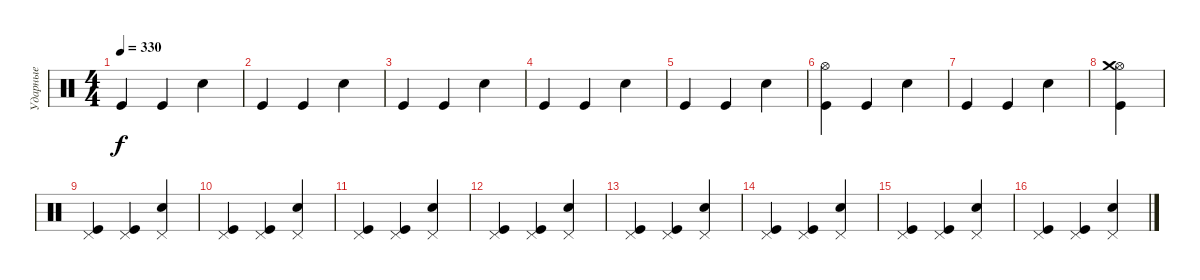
\track ("Ударные" "Ударные") {instrument percussion}
\staff {score}
\articulation defaults
\ts (4 4)
\tempo 330
\clef neutral
\ks c "Kick (hit)".4{dy f} "Kick (hit)".4 "Snare (hit) 2".4
|
"Kick (hit)".4 "Kick (hit)".4 "Snare (hit) 2".4 |
"Kick (hit)".4 "Kick (hit)".4 "Snare (hit) 2".4 |
"Kick (hit)".4 "Kick (hit)".4 "Snare (hit) 2".4 |
"Kick (hit)".4 "Kick (hit)".4 "Snare (hit) 2".4 |
("Kick (hit)" "Hi-Hat (open)").4 "Kick (hit)".4 "Snare (hit) 2".4 |
"Kick (hit)".4 "Kick (hit)".4 "Snare (hit) 2".4 |
("Kick (hit)" "Hi-Hat (open)" "Crash medium (hit)").4 |
("Kick (hit)" "Pedal Hi-Hat (hit)").4 ("Kick (hit)" "Pedal Hi-Hat (hit)").4 ("Snare (hit) 2" "Pedal Hi-Hat (hit)").4 |
("Kick (hit)" "Pedal Hi-Hat (hit)").4 ("Kick (hit)" "Pedal Hi-Hat (hit)").4 ("Snare (hit) 2" "Pedal Hi-Hat (hit)").4 |
("Kick (hit)" "Pedal Hi-Hat (hit)").4 ("Kick (hit)" "Pedal Hi-Hat (hit)").4 ("Snare (hit) 2" "Pedal Hi-Hat (hit)").4 |
("Kick (hit)" "Pedal Hi-Hat (hit)").4 ("Kick (hit)" "Pedal Hi-Hat (hit)").4 ("Snare (hit) 2" "Pedal Hi-Hat (hit)").4 |
("Kick (hit)" "Pedal Hi-Hat (hit)").4 ("Kick (hit)" "Pedal Hi-Hat (hit)").4 ("Snare (hit) 2" "Pedal Hi-Hat (hit)").4 |
("Kick (hit)" "Pedal Hi-Hat (hit)").4 ("Kick (hit)" "Pedal Hi-Hat (hit)").4 ("Snare (hit) 2" "Pedal Hi-Hat (hit)").4 |
("Kick (hit)" "Pedal Hi-Hat (hit)").4 ("Kick (hit)" "Pedal Hi-Hat (hit)").4 ("Snare (hit) 2" "Pedal Hi-Hat (hit)").4 |
("Kick (hit)" "Pedal Hi-Hat (hit)").4 ("Kick (hit)" "Pedal Hi-Hat (hit)").4 ("Snare (hit) 2" "Pedal Hi-Hat (hit)").4
